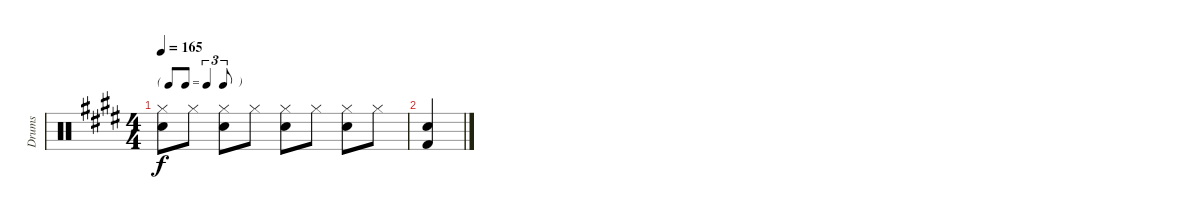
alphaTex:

\track ("Drums" "Drums") {instrument percussion}
\staff {score}
\articulation defaults
\ts (4 4)
\tf triplet8th
\tempo 165
\clef neutral
\ks e
("Hi-Hat (closed)" "Snare (hit) 2").8{dy f} "Hi-Hat (closed)".8 ("Hi-Hat (closed)" "Snare (hit) 2").8 "Hi-Hat (closed)".8 ("Hi-Hat (closed)" "Snare (hit) 2").8 "Hi-Hat (closed)".8 ("Hi-Hat (closed)" "Snare (hit) 2").8 "Hi-Hat (closed)".8 |
("Snare (hit) 2" "Kick (hit) 2").4
